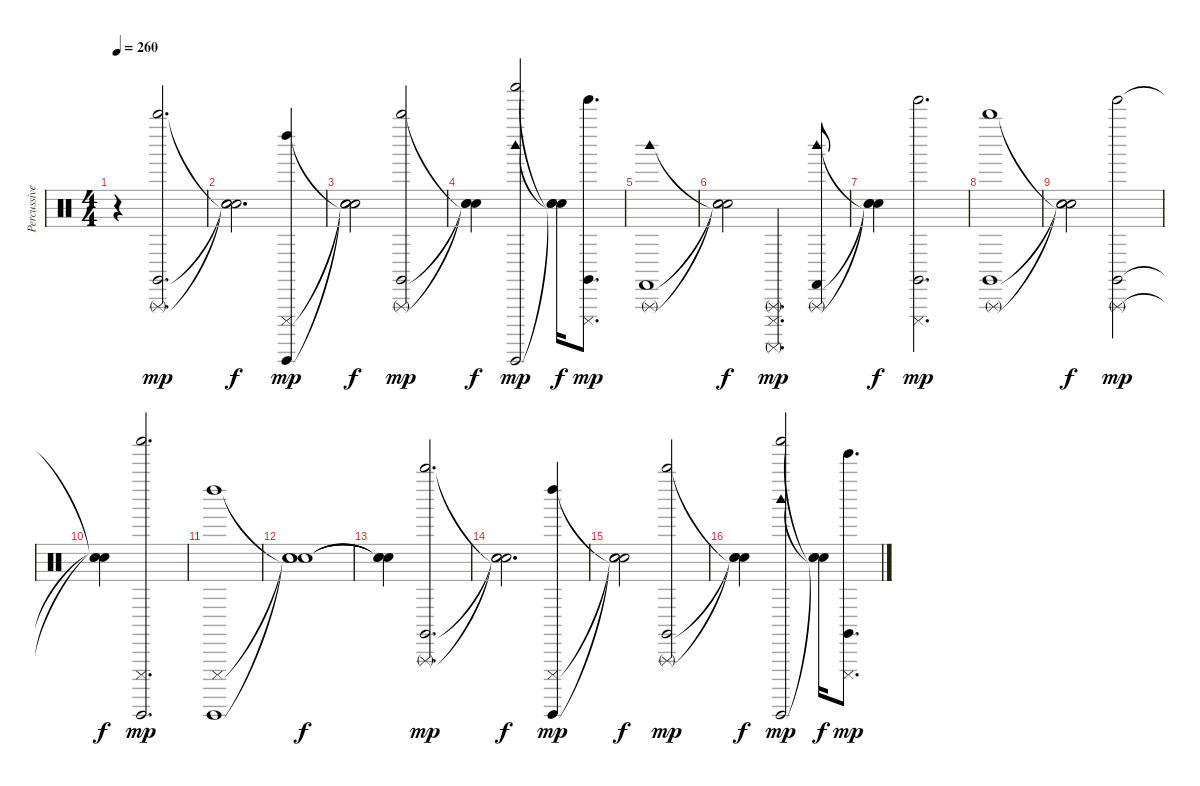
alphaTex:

\track ("Percussive Organ" "Percussive") {instrument percussion}
\staff {score}
\articulation defaults
\ts (4 4)
\tempo 260
\clef neutral
\ks c
r.4{dy f} ("Claves (hit)" "Whistle high (hit)" "Triangle (rnute)").2{d dy mp} |
("Snare (hit)"{t} "Snare (hit)"{t} "Snare (hit)"{t}).2{d dy f} ("Guiro (hit)" "Left Maraca (hit)" "Cuica (mute)").4{dy mp} |
("Snare (hit)"{t} "Snare (hit)"{t} "Snare (hit)"{t}).2{dy f} ("Claves (hit)" "Whistle high (hit)" "Triangle (rnute)").2{dy mp} |
("Snare (hit)"{t} "Snare (hit)"{t} "Snare (hit)"{t}).4{dy f} ("Woodblock high (hit)" "Guiro (hit)" "Shaker (hit)").2{dy mp} ("Snare (hit)"{t} "Snare (hit)"{t} "Snare (hit)"{t}).16{dy f} ("Claves (hit)" "Cuica (mute)" "Tinkle Bell (hit)").8{d dy mp} |
("Woodblock high (hit)" "Castanets (hit)" "Triangle (rnute)").1 |
("Snare (hit)"{t} "Snare (hit)"{t} "Snare (hit)"{t}).2{dy f} ("Cuica (mute)" "Surdo (mute)" "Triangle (rnute)").4{d dy mp} ("Woodblock high (hit)" "Castanets (hit)" "Triangle (rnute)").8 |
("Snare (hit)"{t} "Snare (hit)"{t} "Snare (hit)"{t}).4{dy f} ("Tinkle Bell (hit)" "Cuica (mute)" "Claves (hit)").2{d dy mp} |
("Whistle high (hit)" "Claves (hit)" "Triangle (rnute)").1 |
("Snare (hit)"{t} "Snare (hit)"{t} "Snare (hit)"{t}).2{dy f} ("Tinkle Bell (hit)" "Claves (hit)" "Triangle (rnute)").2{dy mp} |
("Snare (hit)"{t} "Snare (hit)"{t} "Snare (hit)"{t}).4{dy f} ("Shaker (hit)" "Cuica (mute)" "Guiro (hit)").2{d dy mp} |
("Left Maraca (hit)" "Cuica (mute)" "Guiro (hit)").1 |
("Snare (hit)"{t} "Snare (hit)"{t} "Snare (hit)"{t}).1{dy f} |
("Snare (hit)"{t} "Snare (hit)"{t} "Snare (hit)"{t}).4 ("Claves (hit)" "Whistle high (hit)" "Triangle (rnute)").2{d dy mp} |
("Snare (hit)"{t} "Snare (hit)"{t} "Snare (hit)"{t}).2{d dy f} ("Guiro (hit)" "Left Maraca (hit)" "Cuica (mute)").4{dy mp} |
("Snare (hit)"{t} "Snare (hit)"{t} "Snare (hit)"{t}).2{dy f} ("Claves (hit)" "Whistle high (hit)" "Triangle (rnute)").2{dy mp} |
("Snare (hit)"{t} "Snare (hit)"{t} "Snare (hit)"{t}).4{dy f} ("Woodblock high (hit)" "Guiro (hit)" "Shaker (hit)").2{dy mp} ("Snare (hit)"{t} "Snare (hit)"{t} "Snare (hit)"{t}).16{dy f} ("Claves (hit)" "Cuica (mute)" "Tinkle Bell (hit)").8{d dy mp}
